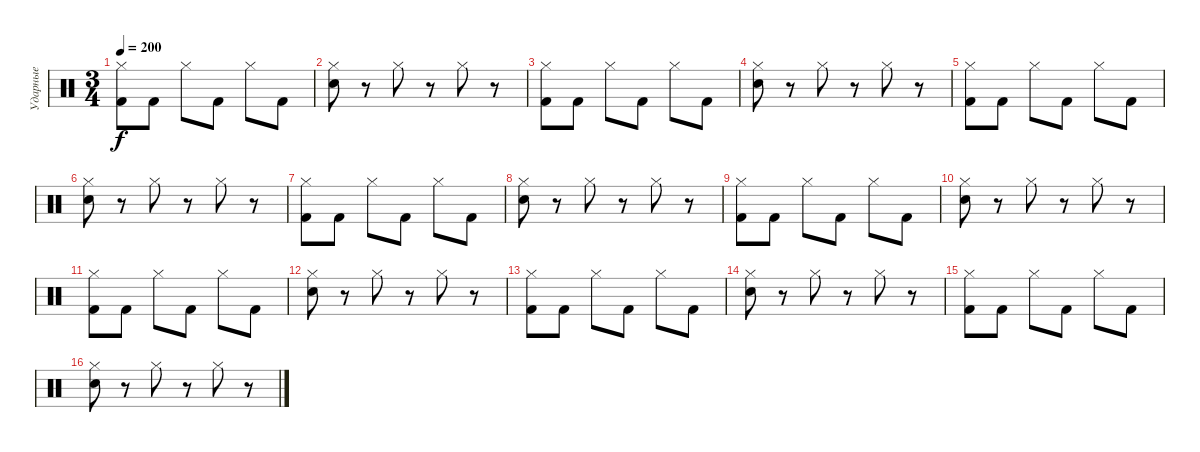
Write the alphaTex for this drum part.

\track ("Ударные" "Ударные") {instrument percussion}
\staff {score}
\articulation defaults
\ts (3 4)
\tempo 200
\clef neutral
\ks c
("Hi-Hat (closed)" "Kick (hit) 2").8{dy f} "Kick (hit) 2".8 "Hi-Hat (closed)".8 "Kick (hit) 2".8 "Hi-Hat (closed)".8 "Kick (hit) 2".8 |
("Electric Snare (hit)" "Hi-Hat (closed)").8 r.8 "Hi-Hat (closed)".8 r.8 "Hi-Hat (closed)".8 r.8 |
("Hi-Hat (closed)" "Kick (hit) 2").8 "Kick (hit) 2".8 "Hi-Hat (closed)".8 "Kick (hit) 2".8 "Hi-Hat (closed)".8 "Kick (hit) 2".8 |
("Electric Snare (hit)" "Hi-Hat (closed)").8 r.8 "Hi-Hat (closed)".8 r.8 "Hi-Hat (closed)".8 r.8 |
("Hi-Hat (closed)" "Kick (hit) 2").8 "Kick (hit) 2".8 "Hi-Hat (closed)".8 "Kick (hit) 2".8 "Hi-Hat (closed)".8 "Kick (hit) 2".8 |
("Electric Snare (hit)" "Hi-Hat (closed)").8 r.8 "Hi-Hat (closed)".8 r.8 "Hi-Hat (closed)".8 r.8 |
("Hi-Hat (closed)" "Kick (hit) 2").8 "Kick (hit) 2".8 "Hi-Hat (closed)".8 "Kick (hit) 2".8 "Hi-Hat (closed)".8 "Kick (hit) 2".8 |
("Electric Snare (hit)" "Hi-Hat (closed)").8 r.8 "Hi-Hat (closed)".8 r.8 "Hi-Hat (closed)".8 r.8 |
("Hi-Hat (closed)" "Kick (hit) 2").8 "Kick (hit) 2".8 "Hi-Hat (closed)".8 "Kick (hit) 2".8 "Hi-Hat (closed)".8 "Kick (hit) 2".8 |
("Electric Snare (hit)" "Hi-Hat (closed)").8 r.8 "Hi-Hat (closed)".8 r.8 "Hi-Hat (closed)".8 r.8 |
("Hi-Hat (closed)" "Kick (hit) 2").8 "Kick (hit) 2".8 "Hi-Hat (closed)".8 "Kick (hit) 2".8 "Hi-Hat (closed)".8 "Kick (hit) 2".8 |
("Electric Snare (hit)" "Hi-Hat (closed)").8 r.8 "Hi-Hat (closed)".8 r.8 "Hi-Hat (closed)".8 r.8 |
("Hi-Hat (closed)" "Kick (hit) 2").8 "Kick (hit) 2".8 "Hi-Hat (closed)".8 "Kick (hit) 2".8 "Hi-Hat (closed)".8 "Kick (hit) 2".8 |
("Electric Snare (hit)" "Hi-Hat (closed)").8 r.8 "Hi-Hat (closed)".8 r.8 "Hi-Hat (closed)".8 r.8 |
("Hi-Hat (closed)" "Kick (hit) 2").8 "Kick (hit) 2".8 "Hi-Hat (closed)".8 "Kick (hit) 2".8 "Hi-Hat (closed)".8 "Kick (hit) 2".8 |
("Electric Snare (hit)" "Hi-Hat (closed)").8 r.8 "Hi-Hat (closed)".8 r.8 "Hi-Hat (closed)".8 r.8
